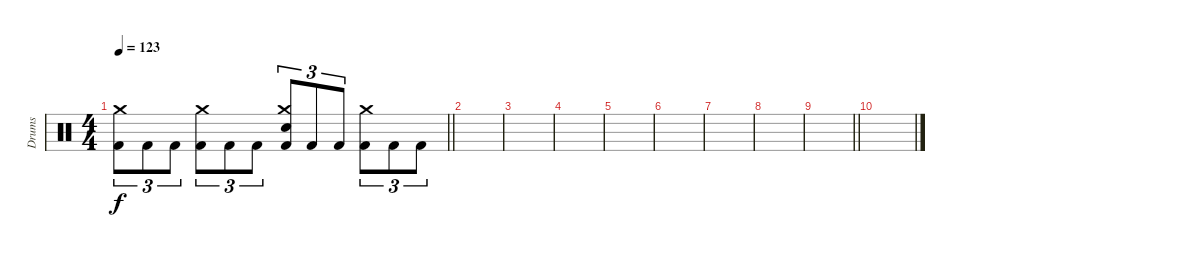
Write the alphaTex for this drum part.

\track ("Drums" "Drums") {instrument percussion}
\staff {score}
\articulation defaults
\ts (4 4)
\tempo 123
\clef neutral
\barLineRight lightlight
\ks c
("Kick (hit) 2" "Crash medium (hit)").8{tu (3 2) dy f} "Kick (hit) 2".8{tu (3 2)} "Kick (hit) 2".8{tu (3 2)} ("Kick (hit) 2" "Crash medium (hit)").8{tu (3 2)} "Kick (hit) 2".8{tu (3 2)} "Kick (hit) 2".8{tu (3 2)} ("Kick (hit) 2" "Snare (hit) 2" "Crash medium (hit)").8{tu (3 2)} "Kick (hit) 2".8{tu (3 2)} "Kick (hit) 2".8{tu (3 2)} ("Kick (hit) 2" "Crash medium (hit)").8{tu (3 2)} "Kick (hit) 2".8{tu (3 2)} "Kick (hit) 2".8{tu (3 2)} |
\section ("" "")
|
|
|
|
|
|
|
\barLineRight lightlight
|
\section ("" "")
